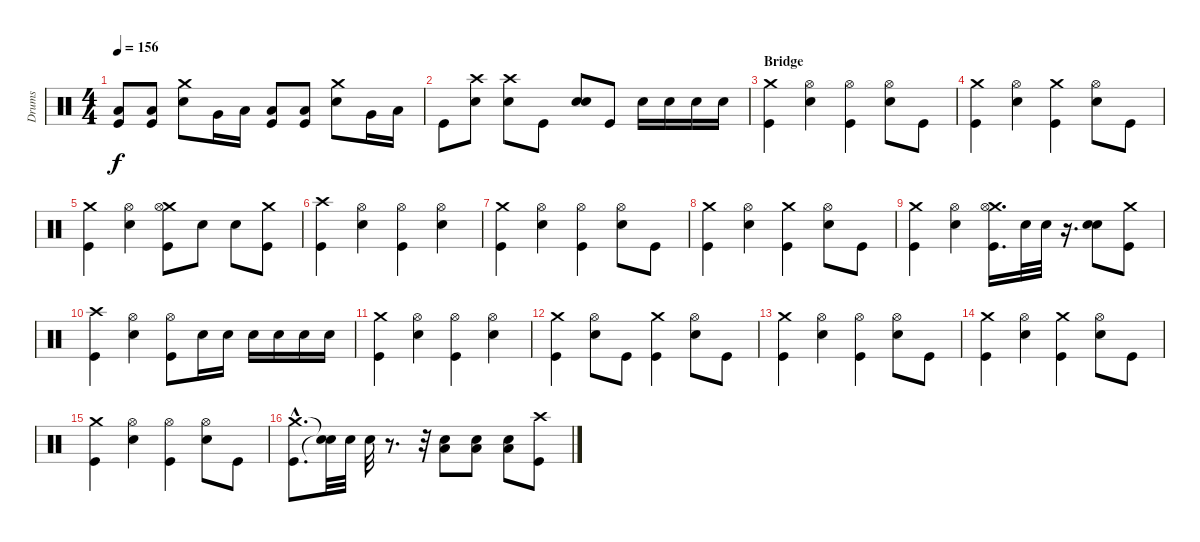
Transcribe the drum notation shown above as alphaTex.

\track ("Drums" "Drums") {instrument percussion}
\staff {score}
\articulation defaults
\ts (4 4)
\tempo 156
\clef neutral
\ks c
("Low Floor Tom (hit)" "Kick (hit)").8{dy f} ("Low Floor Tom (hit)" "Kick (hit)").8 ("Crash medium (hit)" "Electric Snare (hit)").8 "Very Low Tom (hit)".16 "Low Floor Tom (hit)".16 ("Low Floor Tom (hit)" "Kick (hit)").8 ("Low Floor Tom (hit)" "Kick (hit)").8 ("Crash medium (hit)" "Electric Snare (hit)").8 "Very Low Tom (hit)".16 "Low Floor Tom (hit)".16 |
"Kick (hit)".8 ("Crash high (hit)" "Electric Snare (hit)").8 ("Crash high (hit)" "Electric Snare (hit)").8 "Kick (hit)".8 ("Electric Snare (hit)" "Electric Snare (hit)").8 "Kick (hit)".8 "Electric Snare (hit)".16 "Electric Snare (hit)".16 "Electric Snare (hit)".16 "Electric Snare (hit)".16 |
\section ("" "Bridge")
("Kick (hit)" "Crash medium (hit)").4 ("Electric Snare (hit)" "Hi-Hat (open)").4 ("Kick (hit)" "Hi-Hat (open)").4 ("Electric Snare (hit)" "Hi-Hat (open)").8 "Kick (hit)".8 |
("Kick (hit)" "Crash medium (hit)").4 ("Electric Snare (hit)" "Hi-Hat (open)").4 ("Kick (hit)" "Crash medium (hit)").4 ("Electric Snare (hit)" "Hi-Hat (open)").8 "Kick (hit)".8 |
("Kick (hit)" "Crash medium (hit)").4 ("Hi-Hat (open)" "Electric Snare (hit)").4 ("Crash medium (hit)" "Kick (hit)" "Hi-Hat (open)").8 "Electric Snare (hit)".8 "Electric Snare (hit)".8 ("Crash medium (hit)" "Kick (hit)").8 |
("Kick (hit)" "Crash high (hit)").4 ("Electric Snare (hit)" "Hi-Hat (open)").4 ("Kick (hit)" "Hi-Hat (open)").4 ("Electric Snare (hit)" "Hi-Hat (open)").4 |
("Kick (hit)" "Crash medium (hit)").4 ("Electric Snare (hit)" "Hi-Hat (open)").4 ("Kick (hit)" "Hi-Hat (open)").4 ("Electric Snare (hit)" "Hi-Hat (open)").8 "Kick (hit)".8 |
("Kick (hit)" "Crash medium (hit)").4 ("Electric Snare (hit)" "Hi-Hat (open)").4 ("Kick (hit)" "Crash medium (hit)").4 ("Electric Snare (hit)" "Hi-Hat (open)").8 "Kick (hit)".8 |
("Kick (hit)" "Crash medium (hit)").4 ("Hi-Hat (open)" "Electric Snare (hit)").4 ("Crash medium (hit)" "Kick (hit)" "Hi-Hat (open)").16{d} "Electric Snare (hit)".32 "Electric Snare (hit)".32 r.16{d} ("Electric Snare (hit)" "Electric Snare (hit)").8 ("Crash medium (hit)" "Kick (hit)").8 |
("Kick (hit)" "Crash high (hit)").4 ("Hi-Hat (open)" "Electric Snare (hit)").4 ("Hi-Hat (open)" "Kick (hit)").8 "Electric Snare (hit)".16 "Electric Snare (hit)".16 "Electric Snare (hit)".16 "Electric Snare (hit)".16 "Electric Snare (hit)".16 "Electric Snare (hit)".16 |
("Kick (hit)" "Crash medium (hit)").4 ("Electric Snare (hit)" "Hi-Hat (open)").4 ("Kick (hit)" "Hi-Hat (open)").4 ("Electric Snare (hit)" "Hi-Hat (open)").4 |
("Kick (hit)" "Crash medium (hit)").4 ("Electric Snare (hit)" "Hi-Hat (open)").8 "Kick (hit)".8 ("Kick (hit)" "Crash medium (hit)").4 ("Electric Snare (hit)" "Hi-Hat (open)").8 "Kick (hit)".8 |
("Kick (hit)" "Crash medium (hit)").4 ("Electric Snare (hit)" "Hi-Hat (open)").4 ("Kick (hit)" "Hi-Hat (open)").4 ("Electric Snare (hit)" "Hi-Hat (open)").8 "Kick (hit)".8 |
("Kick (hit)" "Crash medium (hit)").4 ("Electric Snare (hit)" "Hi-Hat (open)").4 ("Kick (hit)" "Crash medium (hit)").4 ("Electric Snare (hit)" "Hi-Hat (open)").8 "Kick (hit)".8 |
("Kick (hit)" "Crash medium (hit)").4 ("Electric Snare (hit)" "Hi-Hat (open)").4 ("Kick (hit)" "Hi-Hat (open)").4 ("Electric Snare (hit)" "Hi-Hat (open)").8 "Kick (hit)".8 |
("Kick (hit)"{hac} "Crash medium (hit)"{hac}).8{d} ("Snare (hit)"{t} "Snare (hit)"{t}).32 "Electric Snare (hit)".32 "Electric Snare (hit)".32 r.8{d} r.32 ("Electric Snare (hit)" "Low Tom (hit)").8 ("Low Tom (hit)" "Electric Snare (hit)").8 ("Electric Snare (hit)" "Low Tom (hit)").8 ("Crash high (hit)" "Kick (hit)").8
